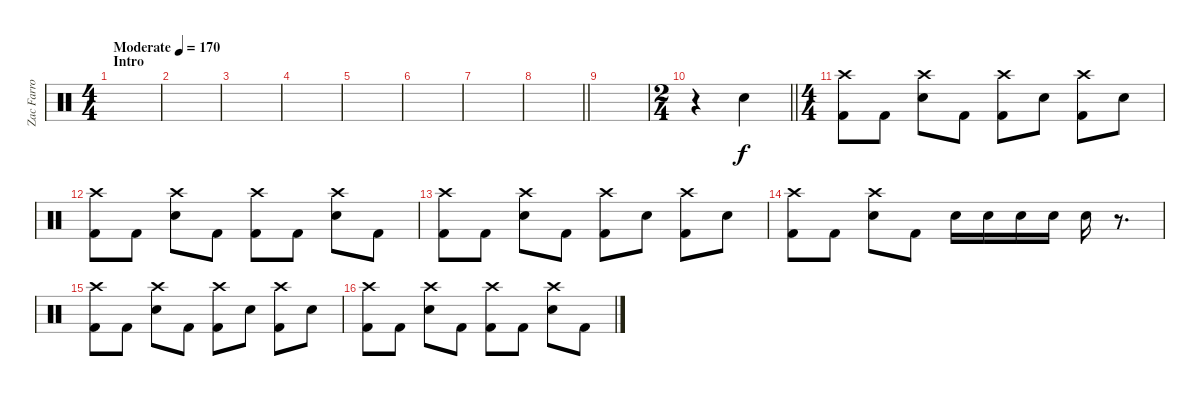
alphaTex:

\track ("Zac Farro (Percussion)" "Zac Farro ") {instrument percussion}
\staff {score}
\articulation defaults
\ts (4 4)
\section ("" "Intro")
\tempo (170 "Moderate")
\clef neutral
\ks c
|
|
|
|
|
|
|
\barLineRight lightlight
|
|
\ts (2 4)
\barLineRight lightlight
r.4 "Electric Snare (hit)".4 |
\ts (4 4)
\section ("" "")
("Crash high (hit)" "Kick (hit) 2").8 "Kick (hit) 2".8 ("Crash high (hit)" "Electric Snare (hit)").8 "Kick (hit) 2".8 ("Crash high (hit)" "Kick (hit) 2").8 "Electric Snare (hit)".8 ("Crash high (hit)" "Kick (hit) 2").8 "Electric Snare (hit)".8 |
("Crash high (hit)" "Kick (hit) 2").8 "Kick (hit) 2".8 ("Crash high (hit)" "Electric Snare (hit)").8 "Kick (hit) 2".8 ("Crash high (hit)" "Kick (hit) 2").8 "Kick (hit) 2".8 ("Crash high (hit)" "Electric Snare (hit)").8 "Kick (hit) 2".8 |
("Crash high (hit)" "Kick (hit) 2").8 "Kick (hit) 2".8 ("Crash high (hit)" "Electric Snare (hit)").8 "Kick (hit) 2".8 ("Crash high (hit)" "Kick (hit) 2").8 "Electric Snare (hit)".8 ("Crash high (hit)" "Kick (hit) 2").8 "Electric Snare (hit)".8 |
("Crash high (hit)" "Kick (hit) 2").8 "Kick (hit) 2".8 ("Crash high (hit)" "Electric Snare (hit)").8 "Kick (hit) 2".8 "Electric Snare (hit)".16 "Electric Snare (hit)".16 "Electric Snare (hit)".16 "Electric Snare (hit)".16 "Electric Snare (hit)".16 r.8{d} |
("Crash high (hit)" "Kick (hit) 2").8 "Kick (hit) 2".8 ("Crash high (hit)" "Electric Snare (hit)").8 "Kick (hit) 2".8 ("Crash high (hit)" "Kick (hit) 2").8 "Electric Snare (hit)".8 ("Crash high (hit)" "Kick (hit) 2").8 "Electric Snare (hit)".8 |
("Crash high (hit)" "Kick (hit) 2").8 "Kick (hit) 2".8 ("Crash high (hit)" "Electric Snare (hit)").8 "Kick (hit) 2".8 ("Crash high (hit)" "Kick (hit) 2").8 "Kick (hit) 2".8 ("Crash high (hit)" "Electric Snare (hit)").8 "Kick (hit) 2".8
